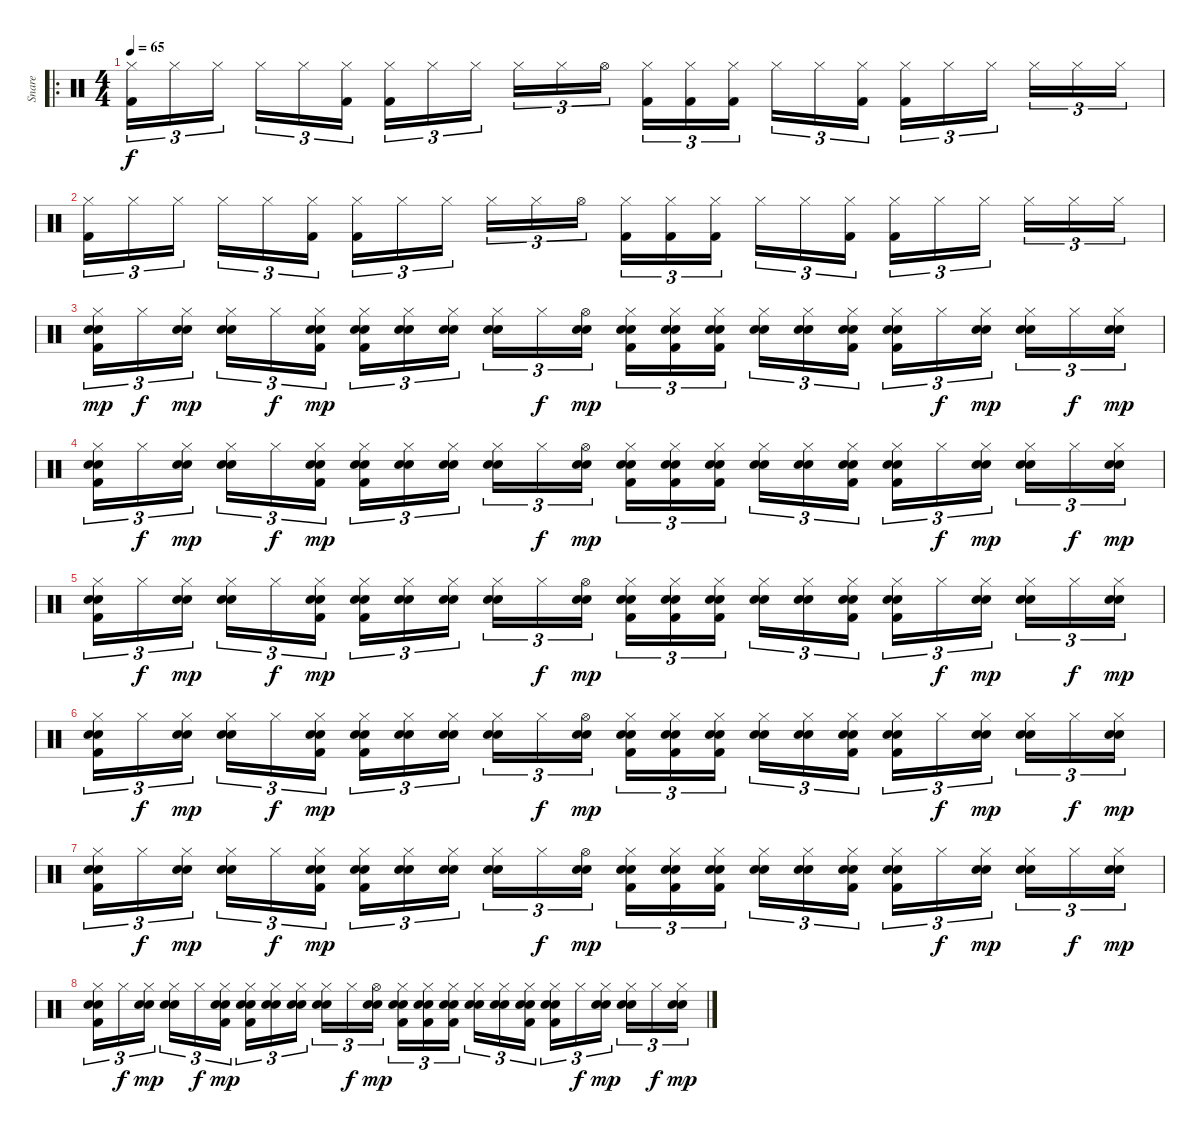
\track ("Snare" "Snare") {instrument percussion}
\staff {score}
\articulation defaults
\ro
\ts (4 4)
\tempo 65
\clef neutral
\ks c
("Hi-Hat (closed)" "Kick (hit) 2").16{tu (3 2) dy f} "Hi-Hat (closed)".16{tu (3 2)} "Hi-Hat (closed)".16{tu (3 2)} "Hi-Hat (closed)".16{tu (3 2)} "Hi-Hat (closed)".16{tu (3 2)} ("Hi-Hat (closed)" "Kick (hit) 2").16{tu (3 2)} ("Hi-Hat (closed)" "Kick (hit) 2").16{tu (3 2)} "Hi-Hat (closed)".16{tu (3 2)} "Hi-Hat (closed)".16{tu (3 2)} "Hi-Hat (closed)".16{tu (3 2)} "Hi-Hat (closed)".16{tu (3 2)} "Hi-Hat (open)".16{tu (3 2)} ("Hi-Hat (closed)" "Kick (hit) 2").16{tu (3 2)} ("Hi-Hat (closed)" "Kick (hit) 2").16{tu (3 2)} ("Hi-Hat (closed)" "Kick (hit) 2").16{tu (3 2)} "Hi-Hat (closed)".16{tu (3 2)} "Hi-Hat (closed)".16{tu (3 2)} ("Hi-Hat (closed)" "Kick (hit) 2").16{tu (3 2)} ("Hi-Hat (closed)" "Kick (hit) 2").16{tu (3 2)} "Hi-Hat (closed)".16{tu (3 2)} "Hi-Hat (closed)".16{tu (3 2)} "Hi-Hat (closed)".16{tu (3 2)} "Hi-Hat (closed)".16{tu (3 2)} "Hi-Hat (closed)".16{tu (3 2)} |
("Hi-Hat (closed)" "Kick (hit) 2").16{tu (3 2)} "Hi-Hat (closed)".16{tu (3 2)} "Hi-Hat (closed)".16{tu (3 2)} "Hi-Hat (closed)".16{tu (3 2)} "Hi-Hat (closed)".16{tu (3 2)} ("Hi-Hat (closed)" "Kick (hit) 2").16{tu (3 2)} ("Hi-Hat (closed)" "Kick (hit) 2").16{tu (3 2)} "Hi-Hat (closed)".16{tu (3 2)} "Hi-Hat (closed)".16{tu (3 2)} "Hi-Hat (closed)".16{tu (3 2)} "Hi-Hat (closed)".16{tu (3 2)} "Hi-Hat (open)".16{tu (3 2)} ("Hi-Hat (closed)" "Kick (hit) 2").16{tu (3 2)} ("Hi-Hat (closed)" "Kick (hit) 2").16{tu (3 2)} ("Hi-Hat (closed)" "Kick (hit) 2").16{tu (3 2)} "Hi-Hat (closed)".16{tu (3 2)} "Hi-Hat (closed)".16{tu (3 2)} ("Hi-Hat (closed)" "Kick (hit) 2").16{tu (3 2)} ("Hi-Hat (closed)" "Kick (hit) 2").16{tu (3 2)} "Hi-Hat (closed)".16{tu (3 2)} "Hi-Hat (closed)".16{tu (3 2)} "Hi-Hat (closed)".16{tu (3 2)} "Hi-Hat (closed)".16{tu (3 2)} "Hi-Hat (closed)".16{tu (3 2)} |
("Hi-Hat (closed)" "Snare (hit) 2" "Electric Snare (hit)" "Kick (hit) 2").16{tu (3 2) dy mp} "Hi-Hat (closed)".16{tu (3 2) dy f} ("Hi-Hat (closed)" "Snare (hit) 2" "Electric Snare (hit)").16{tu (3 2) dy mp} ("Hi-Hat (closed)" "Snare (hit) 2" "Electric Snare (hit)").16{tu (3 2)} "Hi-Hat (closed)".16{tu (3 2) dy f} ("Hi-Hat (closed)" "Snare (hit) 2" "Electric Snare (hit)" "Kick (hit) 2").16{tu (3 2) dy mp} ("Hi-Hat (closed)" "Snare (hit) 2" "Electric Snare (hit)" "Kick (hit) 2").16{tu (3 2)} ("Hi-Hat (closed)" "Snare (hit) 2" "Electric Snare (hit)").16{tu (3 2)} ("Hi-Hat (closed)" "Snare (hit) 2" "Electric Snare (hit)").16{tu (3 2)} ("Hi-Hat (closed)" "Snare (hit) 2" "Electric Snare (hit)").16{tu (3 2)} "Hi-Hat (closed)".16{tu (3 2) dy f} ("Hi-Hat (open)" "Snare (hit) 2" "Electric Snare (hit)").16{tu (3 2) dy mp} ("Hi-Hat (closed)" "Snare (hit) 2" "Electric Snare (hit)" "Kick (hit) 2").16{tu (3 2)} ("Hi-Hat (closed)" "Snare (hit) 2" "Electric Snare (hit)" "Kick (hit) 2").16{tu (3 2)} ("Hi-Hat (closed)" "Snare (hit) 2" "Electric Snare (hit)" "Kick (hit) 2").16{tu (3 2)} ("Hi-Hat (closed)" "Snare (hit) 2" "Electric Snare (hit)").16{tu (3 2)} ("Hi-Hat (closed)" "Snare (hit) 2" "Electric Snare (hit)").16{tu (3 2)} ("Hi-Hat (closed)" "Snare (hit) 2" "Electric Snare (hit)" "Kick (hit) 2").16{tu (3 2)} ("Hi-Hat (closed)" "Snare (hit) 2" "Electric Snare (hit)" "Kick (hit) 2").16{tu (3 2)} "Hi-Hat (closed)".16{tu (3 2) dy f} ("Hi-Hat (closed)" "Snare (hit) 2" "Electric Snare (hit)").16{tu (3 2) dy mp} ("Hi-Hat (closed)" "Snare (hit) 2" "Electric Snare (hit)").16{tu (3 2)} "Hi-Hat (closed)".16{tu (3 2) dy f} ("Hi-Hat (closed)" "Snare (hit) 2" "Electric Snare (hit)").16{tu (3 2) dy mp} |
("Hi-Hat (closed)" "Snare (hit) 2" "Electric Snare (hit)" "Kick (hit) 2").16{tu (3 2)} "Hi-Hat (closed)".16{tu (3 2) dy f} ("Hi-Hat (closed)" "Snare (hit) 2" "Electric Snare (hit)").16{tu (3 2) dy mp} ("Hi-Hat (closed)" "Snare (hit) 2" "Electric Snare (hit)").16{tu (3 2)} "Hi-Hat (closed)".16{tu (3 2) dy f} ("Hi-Hat (closed)" "Snare (hit) 2" "Electric Snare (hit)" "Kick (hit) 2").16{tu (3 2) dy mp} ("Hi-Hat (closed)" "Snare (hit) 2" "Electric Snare (hit)" "Kick (hit) 2").16{tu (3 2)} ("Hi-Hat (closed)" "Snare (hit) 2" "Electric Snare (hit)").16{tu (3 2)} ("Hi-Hat (closed)" "Snare (hit) 2" "Electric Snare (hit)").16{tu (3 2)} ("Hi-Hat (closed)" "Snare (hit) 2" "Electric Snare (hit)").16{tu (3 2)} "Hi-Hat (closed)".16{tu (3 2) dy f} ("Hi-Hat (open)" "Snare (hit) 2" "Electric Snare (hit)").16{tu (3 2) dy mp} ("Hi-Hat (closed)" "Snare (hit) 2" "Electric Snare (hit)" "Kick (hit) 2").16{tu (3 2)} ("Hi-Hat (closed)" "Snare (hit) 2" "Electric Snare (hit)" "Kick (hit) 2").16{tu (3 2)} ("Hi-Hat (closed)" "Snare (hit) 2" "Electric Snare (hit)" "Kick (hit) 2").16{tu (3 2)} ("Hi-Hat (closed)" "Snare (hit) 2" "Electric Snare (hit)").16{tu (3 2)} ("Hi-Hat (closed)" "Snare (hit) 2" "Electric Snare (hit)").16{tu (3 2)} ("Hi-Hat (closed)" "Snare (hit) 2" "Electric Snare (hit)" "Kick (hit) 2").16{tu (3 2)} ("Hi-Hat (closed)" "Snare (hit) 2" "Electric Snare (hit)" "Kick (hit) 2").16{tu (3 2)} "Hi-Hat (closed)".16{tu (3 2) dy f} ("Hi-Hat (closed)" "Snare (hit) 2" "Electric Snare (hit)").16{tu (3 2) dy mp} ("Hi-Hat (closed)" "Snare (hit) 2" "Electric Snare (hit)").16{tu (3 2)} "Hi-Hat (closed)".16{tu (3 2) dy f} ("Hi-Hat (closed)" "Snare (hit) 2" "Electric Snare (hit)").16{tu (3 2) dy mp} |
("Hi-Hat (closed)" "Snare (hit) 2" "Electric Snare (hit)" "Kick (hit) 2").16{tu (3 2)} "Hi-Hat (closed)".16{tu (3 2) dy f} ("Hi-Hat (closed)" "Snare (hit) 2" "Electric Snare (hit)").16{tu (3 2) dy mp} ("Hi-Hat (closed)" "Snare (hit) 2" "Electric Snare (hit)").16{tu (3 2)} "Hi-Hat (closed)".16{tu (3 2) dy f} ("Hi-Hat (closed)" "Snare (hit) 2" "Electric Snare (hit)" "Kick (hit) 2").16{tu (3 2) dy mp} ("Hi-Hat (closed)" "Snare (hit) 2" "Electric Snare (hit)" "Kick (hit) 2").16{tu (3 2)} ("Hi-Hat (closed)" "Snare (hit) 2" "Electric Snare (hit)").16{tu (3 2)} ("Hi-Hat (closed)" "Snare (hit) 2" "Electric Snare (hit)").16{tu (3 2)} ("Hi-Hat (closed)" "Snare (hit) 2" "Electric Snare (hit)").16{tu (3 2)} "Hi-Hat (closed)".16{tu (3 2) dy f} ("Hi-Hat (open)" "Snare (hit) 2" "Electric Snare (hit)").16{tu (3 2) dy mp} ("Hi-Hat (closed)" "Snare (hit) 2" "Electric Snare (hit)" "Kick (hit) 2").16{tu (3 2)} ("Hi-Hat (closed)" "Snare (hit) 2" "Electric Snare (hit)" "Kick (hit) 2").16{tu (3 2)} ("Hi-Hat (closed)" "Snare (hit) 2" "Electric Snare (hit)" "Kick (hit) 2").16{tu (3 2)} ("Hi-Hat (closed)" "Snare (hit) 2" "Electric Snare (hit)").16{tu (3 2)} ("Hi-Hat (closed)" "Snare (hit) 2" "Electric Snare (hit)").16{tu (3 2)} ("Hi-Hat (closed)" "Snare (hit) 2" "Electric Snare (hit)" "Kick (hit) 2").16{tu (3 2)} ("Hi-Hat (closed)" "Snare (hit) 2" "Electric Snare (hit)" "Kick (hit) 2").16{tu (3 2)} "Hi-Hat (closed)".16{tu (3 2) dy f} ("Hi-Hat (closed)" "Snare (hit) 2" "Electric Snare (hit)").16{tu (3 2) dy mp} ("Hi-Hat (closed)" "Snare (hit) 2" "Electric Snare (hit)").16{tu (3 2)} "Hi-Hat (closed)".16{tu (3 2) dy f} ("Hi-Hat (closed)" "Snare (hit) 2" "Electric Snare (hit)").16{tu (3 2) dy mp} |
("Hi-Hat (closed)" "Snare (hit) 2" "Electric Snare (hit)" "Kick (hit) 2").16{tu (3 2)} "Hi-Hat (closed)".16{tu (3 2) dy f} ("Hi-Hat (closed)" "Snare (hit) 2" "Electric Snare (hit)").16{tu (3 2) dy mp} ("Hi-Hat (closed)" "Snare (hit) 2" "Electric Snare (hit)").16{tu (3 2)} "Hi-Hat (closed)".16{tu (3 2) dy f} ("Hi-Hat (closed)" "Snare (hit) 2" "Electric Snare (hit)" "Kick (hit) 2").16{tu (3 2) dy mp} ("Hi-Hat (closed)" "Snare (hit) 2" "Electric Snare (hit)" "Kick (hit) 2").16{tu (3 2)} ("Hi-Hat (closed)" "Snare (hit) 2" "Electric Snare (hit)").16{tu (3 2)} ("Hi-Hat (closed)" "Snare (hit) 2" "Electric Snare (hit)").16{tu (3 2)} ("Hi-Hat (closed)" "Snare (hit) 2" "Electric Snare (hit)").16{tu (3 2)} "Hi-Hat (closed)".16{tu (3 2) dy f} ("Hi-Hat (open)" "Snare (hit) 2" "Electric Snare (hit)").16{tu (3 2) dy mp} ("Hi-Hat (closed)" "Snare (hit) 2" "Electric Snare (hit)" "Kick (hit) 2").16{tu (3 2)} ("Hi-Hat (closed)" "Snare (hit) 2" "Electric Snare (hit)" "Kick (hit) 2").16{tu (3 2)} ("Hi-Hat (closed)" "Snare (hit) 2" "Electric Snare (hit)" "Kick (hit) 2").16{tu (3 2)} ("Hi-Hat (closed)" "Snare (hit) 2" "Electric Snare (hit)").16{tu (3 2)} ("Hi-Hat (closed)" "Snare (hit) 2" "Electric Snare (hit)").16{tu (3 2)} ("Hi-Hat (closed)" "Snare (hit) 2" "Electric Snare (hit)" "Kick (hit) 2").16{tu (3 2)} ("Hi-Hat (closed)" "Snare (hit) 2" "Electric Snare (hit)" "Kick (hit) 2").16{tu (3 2)} "Hi-Hat (closed)".16{tu (3 2) dy f} ("Hi-Hat (closed)" "Snare (hit) 2" "Electric Snare (hit)").16{tu (3 2) dy mp} ("Hi-Hat (closed)" "Snare (hit) 2" "Electric Snare (hit)").16{tu (3 2)} "Hi-Hat (closed)".16{tu (3 2) dy f} ("Hi-Hat (closed)" "Snare (hit) 2" "Electric Snare (hit)").16{tu (3 2) dy mp} |
("Hi-Hat (closed)" "Snare (hit) 2" "Electric Snare (hit)" "Kick (hit) 2").16{tu (3 2)} "Hi-Hat (closed)".16{tu (3 2) dy f} ("Hi-Hat (closed)" "Snare (hit) 2" "Electric Snare (hit)").16{tu (3 2) dy mp} ("Hi-Hat (closed)" "Snare (hit) 2" "Electric Snare (hit)").16{tu (3 2)} "Hi-Hat (closed)".16{tu (3 2) dy f} ("Hi-Hat (closed)" "Snare (hit) 2" "Electric Snare (hit)" "Kick (hit) 2").16{tu (3 2) dy mp} ("Hi-Hat (closed)" "Snare (hit) 2" "Electric Snare (hit)" "Kick (hit) 2").16{tu (3 2)} ("Hi-Hat (closed)" "Snare (hit) 2" "Electric Snare (hit)").16{tu (3 2)} ("Hi-Hat (closed)" "Snare (hit) 2" "Electric Snare (hit)").16{tu (3 2)} ("Hi-Hat (closed)" "Snare (hit) 2" "Electric Snare (hit)").16{tu (3 2)} "Hi-Hat (closed)".16{tu (3 2) dy f} ("Hi-Hat (open)" "Snare (hit) 2" "Electric Snare (hit)").16{tu (3 2) dy mp} ("Hi-Hat (closed)" "Snare (hit) 2" "Electric Snare (hit)" "Kick (hit) 2").16{tu (3 2)} ("Hi-Hat (closed)" "Snare (hit) 2" "Electric Snare (hit)" "Kick (hit) 2").16{tu (3 2)} ("Hi-Hat (closed)" "Snare (hit) 2" "Electric Snare (hit)" "Kick (hit) 2").16{tu (3 2)} ("Hi-Hat (closed)" "Snare (hit) 2" "Electric Snare (hit)").16{tu (3 2)} ("Hi-Hat (closed)" "Snare (hit) 2" "Electric Snare (hit)").16{tu (3 2)} ("Hi-Hat (closed)" "Snare (hit) 2" "Electric Snare (hit)" "Kick (hit) 2").16{tu (3 2)} ("Hi-Hat (closed)" "Snare (hit) 2" "Electric Snare (hit)" "Kick (hit) 2").16{tu (3 2)} "Hi-Hat (closed)".16{tu (3 2) dy f} ("Hi-Hat (closed)" "Snare (hit) 2" "Electric Snare (hit)").16{tu (3 2) dy mp} ("Hi-Hat (closed)" "Snare (hit) 2" "Electric Snare (hit)").16{tu (3 2)} "Hi-Hat (closed)".16{tu (3 2) dy f} ("Hi-Hat (closed)" "Snare (hit) 2" "Electric Snare (hit)").16{tu (3 2) dy mp} |
("Hi-Hat (closed)" "Snare (hit) 2" "Electric Snare (hit)" "Kick (hit) 2").16{tu (3 2)} "Hi-Hat (closed)".16{tu (3 2) dy f} ("Hi-Hat (closed)" "Snare (hit) 2" "Electric Snare (hit)").16{tu (3 2) dy mp} ("Hi-Hat (closed)" "Snare (hit) 2" "Electric Snare (hit)").16{tu (3 2)} "Hi-Hat (closed)".16{tu (3 2) dy f} ("Hi-Hat (closed)" "Snare (hit) 2" "Electric Snare (hit)" "Kick (hit) 2").16{tu (3 2) dy mp} ("Hi-Hat (closed)" "Snare (hit) 2" "Electric Snare (hit)" "Kick (hit) 2").16{tu (3 2)} ("Hi-Hat (closed)" "Snare (hit) 2" "Electric Snare (hit)").16{tu (3 2)} ("Hi-Hat (closed)" "Snare (hit) 2" "Electric Snare (hit)").16{tu (3 2)} ("Hi-Hat (closed)" "Snare (hit) 2" "Electric Snare (hit)").16{tu (3 2)} "Hi-Hat (closed)".16{tu (3 2) dy f} ("Hi-Hat (open)" "Snare (hit) 2" "Electric Snare (hit)").16{tu (3 2) dy mp} ("Hi-Hat (closed)" "Snare (hit) 2" "Electric Snare (hit)" "Kick (hit) 2").16{tu (3 2)} ("Hi-Hat (closed)" "Snare (hit) 2" "Electric Snare (hit)" "Kick (hit) 2").16{tu (3 2)} ("Hi-Hat (closed)" "Snare (hit) 2" "Electric Snare (hit)" "Kick (hit) 2").16{tu (3 2)} ("Hi-Hat (closed)" "Snare (hit) 2" "Electric Snare (hit)").16{tu (3 2)} ("Hi-Hat (closed)" "Snare (hit) 2" "Electric Snare (hit)").16{tu (3 2)} ("Hi-Hat (closed)" "Snare (hit) 2" "Electric Snare (hit)" "Kick (hit) 2").16{tu (3 2)} ("Hi-Hat (closed)" "Snare (hit) 2" "Electric Snare (hit)" "Kick (hit) 2").16{tu (3 2)} "Hi-Hat (closed)".16{tu (3 2) dy f} ("Hi-Hat (closed)" "Snare (hit) 2" "Electric Snare (hit)").16{tu (3 2) dy mp} ("Hi-Hat (closed)" "Snare (hit) 2" "Electric Snare (hit)").16{tu (3 2)} "Hi-Hat (closed)".16{tu (3 2) dy f} ("Hi-Hat (closed)" "Snare (hit) 2" "Electric Snare (hit)").16{tu (3 2) dy mp}
